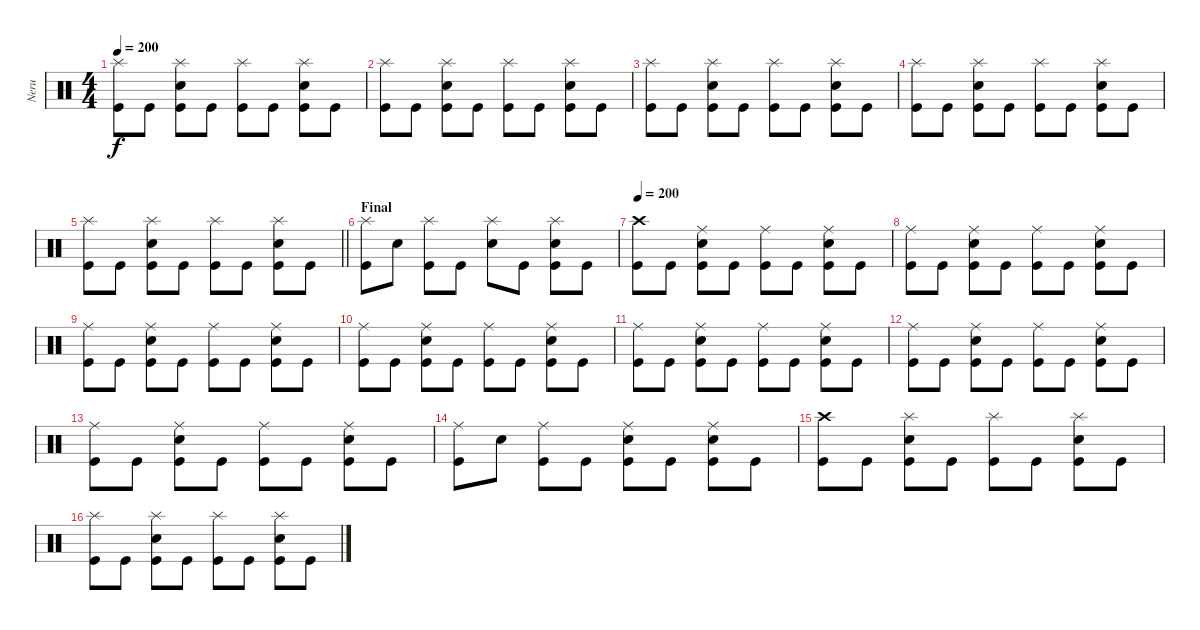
\track ("Neru" "Neru") {instrument percussion}
\staff {score}
\articulation defaults
\ts (4 4)
\tempo 200
\clef neutral
\ks c
("Splash (hit)" "Kick (hit)").8{dy f} "Kick (hit)".8 ("Splash (hit)" "Electric Snare (hit)" "Kick (hit)").8 "Kick (hit)".8 ("Splash (hit)" "Kick (hit)").8 "Kick (hit)".8 ("Splash (hit)" "Electric Snare (hit)" "Kick (hit)").8 "Kick (hit)".8 |
("Splash (hit)" "Kick (hit)").8 "Kick (hit)".8 ("Splash (hit)" "Electric Snare (hit)" "Kick (hit)").8 "Kick (hit)".8 ("Splash (hit)" "Kick (hit)").8 "Kick (hit)".8 ("Splash (hit)" "Electric Snare (hit)" "Kick (hit)").8 "Kick (hit)".8 |
("Splash (hit)" "Kick (hit)").8 "Kick (hit)".8 ("Splash (hit)" "Electric Snare (hit)" "Kick (hit)").8 "Kick (hit)".8 ("Splash (hit)" "Kick (hit)").8 "Kick (hit)".8 ("Splash (hit)" "Electric Snare (hit)" "Kick (hit)").8 "Kick (hit)".8 |
("Splash (hit)" "Kick (hit)").8 "Kick (hit)".8 ("Splash (hit)" "Electric Snare (hit)" "Kick (hit)").8 "Kick (hit)".8 ("Splash (hit)" "Kick (hit)").8 "Kick (hit)".8 ("Splash (hit)" "Electric Snare (hit)" "Kick (hit)").8 "Kick (hit)".8 |
\barLineRight lightlight
("Splash (hit)" "Kick (hit)").8 "Kick (hit)".8 ("Splash (hit)" "Electric Snare (hit)" "Kick (hit)").8 "Kick (hit)".8 ("Splash (hit)" "Kick (hit)").8 "Kick (hit)".8 ("Splash (hit)" "Electric Snare (hit)" "Kick (hit)").8 "Kick (hit)".8 |
\section ("" "Final")
("Splash (hit)" "Kick (hit)").8 "Electric Snare (hit)".8 ("Splash (hit)" "Kick (hit)").8 "Kick (hit)".8 ("Splash (hit)" "Electric Snare (hit)").8 "Kick (hit)".8 ("Splash (hit)" "Electric Snare (hit)" "Kick (hit)").8 "Kick (hit)".8 |
\tempo 200
("Crash high (hit)" "Kick (hit)").8 "Kick (hit)".8 ("Ride (middle)" "Electric Snare (hit)" "Kick (hit)").8 "Kick (hit)".8 ("Ride (middle)" "Kick (hit)").8 "Kick (hit)".8 ("Ride (middle)" "Electric Snare (hit)" "Kick (hit)").8 "Kick (hit)".8 |
("Ride (middle)" "Kick (hit)").8 "Kick (hit)".8 ("Ride (middle)" "Electric Snare (hit)" "Kick (hit)").8 "Kick (hit)".8 ("Ride (middle)" "Kick (hit)").8 "Kick (hit)".8 ("Ride (middle)" "Electric Snare (hit)" "Kick (hit)").8 "Kick (hit)".8 |
("Ride (middle)" "Kick (hit)").8 "Kick (hit)".8 ("Ride (middle)" "Electric Snare (hit)" "Kick (hit)").8 "Kick (hit)".8 ("Ride (middle)" "Kick (hit)").8 "Kick (hit)".8 ("Ride (middle)" "Electric Snare (hit)" "Kick (hit)").8 "Kick (hit)".8 |
("Ride (middle)" "Kick (hit)").8 "Kick (hit)".8 ("Ride (middle)" "Electric Snare (hit)" "Kick (hit)").8 "Kick (hit)".8 ("Ride (middle)" "Kick (hit)").8 "Kick (hit)".8 ("Ride (middle)" "Electric Snare (hit)" "Kick (hit)").8 "Kick (hit)".8 |
("Ride (middle)" "Kick (hit)").8 "Kick (hit)".8 ("Ride (middle)" "Electric Snare (hit)" "Kick (hit)").8 "Kick (hit)".8 ("Ride (middle)" "Kick (hit)").8 "Kick (hit)".8 ("Ride (middle)" "Electric Snare (hit)" "Kick (hit)").8 "Kick (hit)".8 |
("Ride (middle)" "Kick (hit)").8 "Kick (hit)".8 ("Ride (middle)" "Electric Snare (hit)" "Kick (hit)").8 "Kick (hit)".8 ("Ride (middle)" "Kick (hit)").8 "Kick (hit)".8 ("Ride (middle)" "Electric Snare (hit)" "Kick (hit)").8 "Kick (hit)".8 |
("Ride (middle)" "Kick (hit)").8 "Kick (hit)".8 ("Ride (middle)" "Electric Snare (hit)" "Kick (hit)").8 "Kick (hit)".8 ("Ride (middle)" "Kick (hit)").8 "Kick (hit)".8 ("Ride (middle)" "Electric Snare (hit)" "Kick (hit)").8 "Kick (hit)".8 |
("Ride (middle)" "Kick (hit)").8 "Electric Snare (hit)".8 ("Ride (middle)" "Kick (hit)").8 "Kick (hit)".8 ("Ride (middle)" "Electric Snare (hit)" "Kick (hit)").8 "Kick (hit)".8 ("Ride (middle)" "Electric Snare (hit)" "Kick (hit)").8 "Kick (hit)".8 |
("Crash high (hit)" "Kick (hit)").8 "Kick (hit)".8 ("Splash (hit)" "Electric Snare (hit)" "Kick (hit)").8 "Kick (hit)".8 ("Splash (hit)" "Kick (hit)").8 "Kick (hit)".8 ("Splash (hit)" "Electric Snare (hit)" "Kick (hit)").8 "Kick (hit)".8 |
("Splash (hit)" "Kick (hit)").8 "Kick (hit)".8 ("Splash (hit)" "Electric Snare (hit)" "Kick (hit)").8 "Kick (hit)".8 ("Splash (hit)" "Kick (hit)").8 "Kick (hit)".8 ("Splash (hit)" "Electric Snare (hit)" "Kick (hit)").8 "Kick (hit)".8
